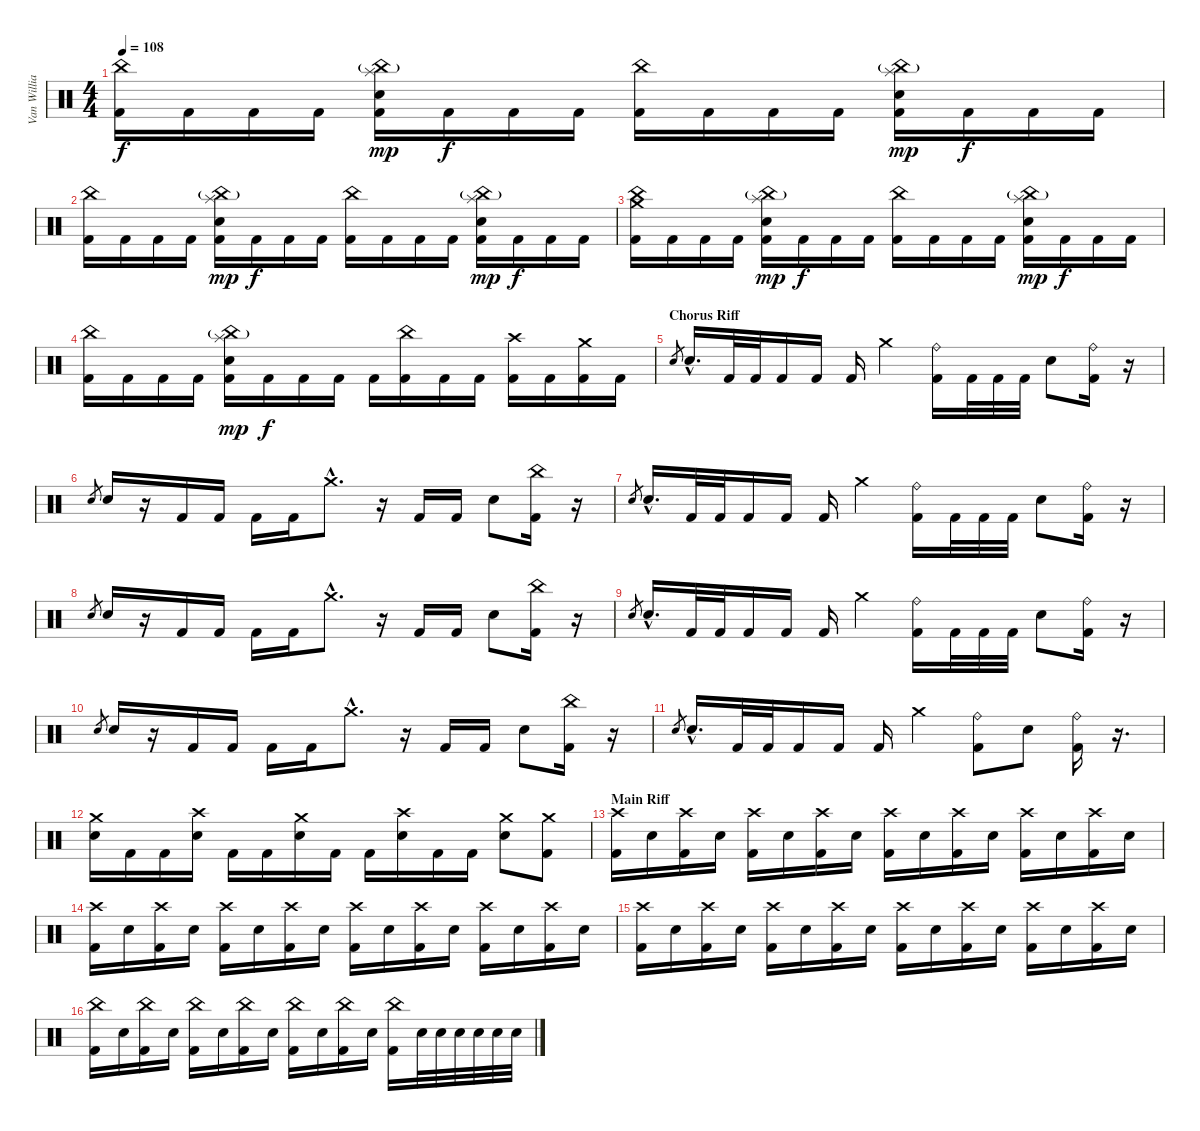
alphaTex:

\track ("Van Williams" "Van Willia") {instrument percussion}
\staff {score}
\articulation defaults
\ts (4 4)
\tempo 108
\clef neutral
\ks c
("China (hit)" "Kick (hit) 2").16{dy f} "Kick (hit) 2".16 "Kick (hit) 2".16 "Kick (hit) 2".16 ("Splash (hit)" "China (hit)"{g} "Electric Snare (hit)" "Kick (hit) 2").16{dy mp} "Kick (hit) 2".16{dy f} "Kick (hit) 2".16 "Kick (hit) 2".16 ("China (hit)" "Kick (hit) 2").16 "Kick (hit) 2".16 "Kick (hit) 2".16 "Kick (hit) 2".16 ("Splash (hit)" "China (hit)"{g} "Electric Snare (hit)" "Kick (hit) 2").16{dy mp} "Kick (hit) 2".16{dy f} "Kick (hit) 2".16 "Kick (hit) 2".16 |
("China (hit)" "Kick (hit) 2").16 "Kick (hit) 2".16 "Kick (hit) 2".16 "Kick (hit) 2".16 ("Splash (hit)" "China (hit)"{g} "Electric Snare (hit)" "Kick (hit) 2").16{dy mp} "Kick (hit) 2".16{dy f} "Kick (hit) 2".16 "Kick (hit) 2".16 ("China (hit)" "Kick (hit) 2").16 "Kick (hit) 2".16 "Kick (hit) 2".16 "Kick (hit) 2".16 ("Splash (hit)" "China (hit)"{g} "Electric Snare (hit)" "Kick (hit) 2").16{dy mp} "Kick (hit) 2".16{dy f} "Kick (hit) 2".16 "Kick (hit) 2".16 |
("China (hit)" "Crash medium (hit)" "Kick (hit) 2").16 "Kick (hit) 2".16 "Kick (hit) 2".16 "Kick (hit) 2".16 ("Splash (hit)" "China (hit)"{g} "Electric Snare (hit)" "Kick (hit) 2").16{dy mp} "Kick (hit) 2".16{dy f} "Kick (hit) 2".16 "Kick (hit) 2".16 ("China (hit)" "Kick (hit) 2").16 "Kick (hit) 2".16 "Kick (hit) 2".16 "Kick (hit) 2".16 ("Splash (hit)" "China (hit)"{g} "Electric Snare (hit)" "Kick (hit) 2").16{dy mp} "Kick (hit) 2".16{dy f} "Kick (hit) 2".16 "Kick (hit) 2".16 |
("China (hit)" "Kick (hit) 2").16 "Kick (hit) 2".16 "Kick (hit) 2".16 "Kick (hit) 2".16 ("Splash (hit)" "China (hit)"{g} "Electric Snare (hit)" "Kick (hit) 2").16{dy mp} "Kick (hit) 2".16{dy f} "Kick (hit) 2".16 "Kick (hit) 2".16 "Kick (hit) 2".16 ("China (hit)" "Kick (hit) 2").16 "Kick (hit) 2".16 "Kick (hit) 2".16 ("Crash high (hit)" "Kick (hit) 2").16 "Kick (hit) 2".16 ("Crash medium (hit)" "Kick (hit) 2").16 "Kick (hit) 2".16 |
\section ("" "Chorus Riff")
"Electric Snare (hit)".8{gr} "Electric Snare (hit)"{hac}.16{d} "Kick (hit) 2".32 "Kick (hit) 2".32 "Kick (hit) 2".16 "Kick (hit) 2".16 "Kick (hit) 2".16 "Crash medium (hit)".4 ("Ride (bell)" "Kick (hit) 2").16 "Kick (hit) 2".32 "Kick (hit) 2".32 "Kick (hit) 2".32 "Electric Snare (hit)".8 ("Ride (bell)" "Kick (hit) 2").16 r.16 |
"Electric Snare (hit)".8{gr} "Electric Snare (hit)".16 r.16 "Kick (hit) 2".16 "Kick (hit) 2".16 "Kick (hit) 2".16 "Kick (hit) 2".16 "Crash medium (hit)"{hac}.8{d} r.16 "Kick (hit) 2".16 "Kick (hit) 2".16 "Electric Snare (hit)".8 ("China (hit)" "Kick (hit) 2").16 r.16 |
"Electric Snare (hit)".8{gr} "Electric Snare (hit)"{hac}.16{d} "Kick (hit) 2".32 "Kick (hit) 2".32 "Kick (hit) 2".16 "Kick (hit) 2".16 "Kick (hit) 2".16 "Crash medium (hit)".4 ("Ride (bell)" "Kick (hit) 2").16 "Kick (hit) 2".32 "Kick (hit) 2".32 "Kick (hit) 2".32 "Electric Snare (hit)".8 ("Ride (bell)" "Kick (hit) 2").16 r.16 |
"Electric Snare (hit)".8{gr} "Electric Snare (hit)".16 r.16 "Kick (hit) 2".16 "Kick (hit) 2".16 "Kick (hit) 2".16 "Kick (hit) 2".16 "Crash medium (hit)"{hac}.8{d} r.16 "Kick (hit) 2".16 "Kick (hit) 2".16 "Electric Snare (hit)".8 ("China (hit)" "Kick (hit) 2").16 r.16 |
"Electric Snare (hit)".8{gr} "Electric Snare (hit)"{hac}.16{d} "Kick (hit) 2".32 "Kick (hit) 2".32 "Kick (hit) 2".16 "Kick (hit) 2".16 "Kick (hit) 2".16 "Crash medium (hit)".4 ("Ride (bell)" "Kick (hit) 2").16 "Kick (hit) 2".32 "Kick (hit) 2".32 "Kick (hit) 2".32 "Electric Snare (hit)".8 ("Ride (bell)" "Kick (hit) 2").16 r.16 |
"Electric Snare (hit)".8{gr} "Electric Snare (hit)".16 r.16 "Kick (hit) 2".16 "Kick (hit) 2".16 "Kick (hit) 2".16 "Kick (hit) 2".16 "Crash medium (hit)"{hac}.8{d} r.16 "Kick (hit) 2".16 "Kick (hit) 2".16 "Electric Snare (hit)".8 ("China (hit)" "Kick (hit) 2").16 r.16 |
"Electric Snare (hit)".8{gr} "Electric Snare (hit)"{hac}.16{d} "Kick (hit) 2".32 "Kick (hit) 2".32 "Kick (hit) 2".16 "Kick (hit) 2".16 "Kick (hit) 2".16 "Crash medium (hit)".4 ("Ride (bell)" "Kick (hit) 2").8 "Electric Snare (hit)".8 ("Ride (bell)" "Kick (hit) 2").16 r.16{d} |
("Crash medium (hit)" "Snare (hit) 2").16 "Kick (hit) 2".16 "Kick (hit) 2".16 ("Crash high (hit)" "Snare (hit) 2").16 "Kick (hit) 2".16 "Kick (hit) 2".16 ("Crash medium (hit)" "Snare (hit) 2").16 "Kick (hit) 2".16 "Kick (hit) 2".16 ("Crash high (hit)" "Snare (hit) 2").16 "Kick (hit) 2".16 "Kick (hit) 2".16 ("Crash medium (hit)" "Snare (hit) 2").8 ("Crash medium (hit)" "Kick (hit) 2").8 |
\section ("" "Main Riff")
("Crash high (hit)" "Kick (hit) 2").16 "Snare (hit) 2".16 ("Crash high (hit)" "Kick (hit) 2").16 "Snare (hit) 2".16 ("Crash high (hit)" "Kick (hit) 2").16 "Snare (hit) 2".16 ("Crash high (hit)" "Kick (hit) 2").16 "Snare (hit) 2".16 ("Crash high (hit)" "Kick (hit) 2").16 "Snare (hit) 2".16 ("Crash high (hit)" "Kick (hit) 2").16 "Snare (hit) 2".16 ("Crash high (hit)" "Kick (hit) 2").16 "Snare (hit) 2".16 ("Crash high (hit)" "Kick (hit) 2").16 "Snare (hit) 2".16 |
("Crash high (hit)" "Kick (hit) 2").16 "Snare (hit) 2".16 ("Crash high (hit)" "Kick (hit) 2").16 "Snare (hit) 2".16 ("Crash high (hit)" "Kick (hit) 2").16 "Snare (hit) 2".16 ("Crash high (hit)" "Kick (hit) 2").16 "Snare (hit) 2".16 ("Crash high (hit)" "Kick (hit) 2").16 "Snare (hit) 2".16 ("Crash high (hit)" "Kick (hit) 2").16 "Snare (hit) 2".16 ("Crash high (hit)" "Kick (hit) 2").16 "Snare (hit) 2".16 ("Crash high (hit)" "Kick (hit) 2").16 "Snare (hit) 2".16 |
("Crash high (hit)" "Kick (hit) 2").16 "Snare (hit) 2".16 ("Crash high (hit)" "Kick (hit) 2").16 "Snare (hit) 2".16 ("Crash high (hit)" "Kick (hit) 2").16 "Snare (hit) 2".16 ("Crash high (hit)" "Kick (hit) 2").16 "Snare (hit) 2".16 ("Crash high (hit)" "Kick (hit) 2").16 "Snare (hit) 2".16 ("Crash high (hit)" "Kick (hit) 2").16 "Snare (hit) 2".16 ("Crash high (hit)" "Kick (hit) 2").16 "Snare (hit) 2".16 ("Crash high (hit)" "Kick (hit) 2").16 "Snare (hit) 2".16 |
("China (hit)" "Kick (hit) 2").16 "Snare (hit) 2".16 ("China (hit)" "Kick (hit) 2").16 "Snare (hit) 2".16 ("China (hit)" "Kick (hit) 2").16 "Snare (hit) 2".16 ("China (hit)" "Kick (hit) 2").16 "Snare (hit) 2".16 ("China (hit)" "Kick (hit) 2").16 "Snare (hit) 2".16 ("China (hit)" "Kick (hit) 2").16 "Snare (hit) 2".16 ("China (hit)" "Kick (hit) 2").16 "Snare (hit) 2".32 "Snare (hit) 2".32 "Snare (hit) 2".32 "Snare (hit) 2".32 "Snare (hit) 2".32 "Snare (hit) 2".32
